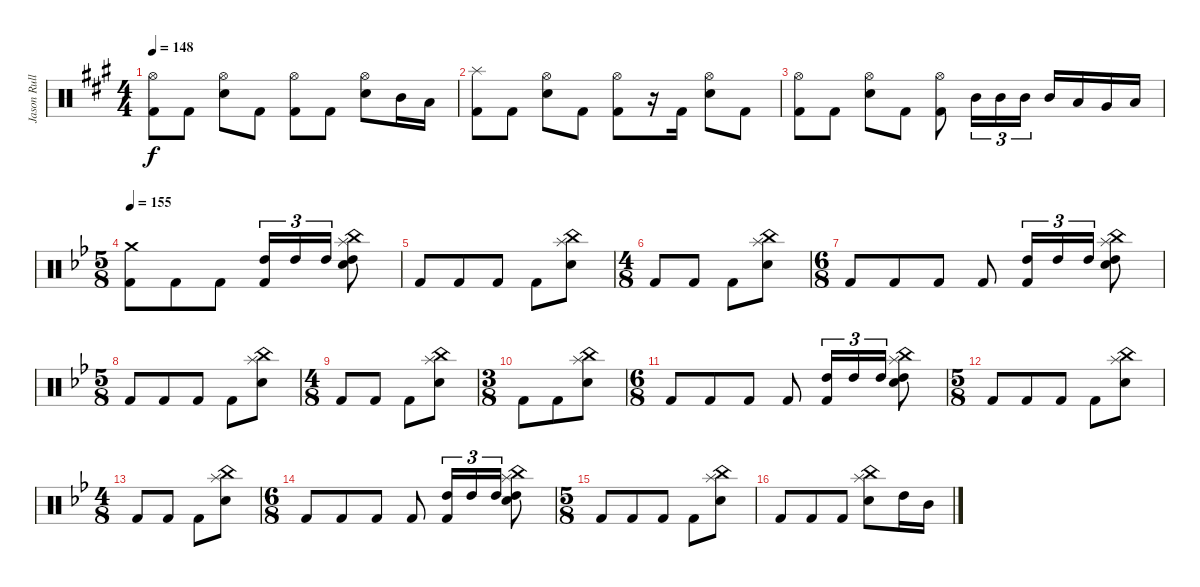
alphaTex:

\track ("Jason Rullo (drums)" "Jason Rull") {instrument percussion}
\staff {score}
\articulation defaults
\ts (4 4)
\tempo 148
\clef neutral
\ks f#minor
("Hi-Hat (open)" "Kick (hit) 2").8{dy f} "Kick (hit) 2".8 ("Hi-Hat (open)" "Electric Snare (hit)").8 "Kick (hit) 2".8 ("Hi-Hat (open)" "Kick (hit) 2").8 "Kick (hit) 2".8 ("Hi-Hat (open)" "Electric Snare (hit)").8 "Mid Tom (hit)".16 "Low Tom (hit)".16 |
("Splash (hit)" "Kick (hit) 2").8 "Kick (hit) 2".8 ("Hi-Hat (open)" "Electric Snare (hit)").8 "Kick (hit) 2".8 ("Hi-Hat (open)" "Kick (hit) 2").8 r.16 "Kick (hit) 2".16 ("Hi-Hat (open)" "Electric Snare (hit)").8 "Kick (hit) 2".8 |
("Hi-Hat (open)" "Kick (hit) 2").8 "Kick (hit) 2".8 ("Hi-Hat (open)" "Electric Snare (hit)").8 "Kick (hit) 2".8 ("Hi-Hat (open)" "Kick (hit) 2").8 "Mid Tom (hit)".16{tu (3 2)} "Mid Tom (hit)".16{tu (3 2)} "Mid Tom (hit)".16{tu (3 2)} "Mid Tom (hit)".16 "Low Tom (hit)".16 "Very Low Tom (hit)".16 "Low Floor Tom (hit)".16 |
\ts (5 8)
\tempo 155
\ks gminor
("Crash medium (hit)" "Kick (hit) 2").8 "Kick (hit) 2".8 "Kick (hit) 2".8 ("High Tom (hit)" "Kick (hit) 2").16{tu (3 2)} "High Tom (hit)".16{tu (3 2)} "High Tom (hit)".16{tu (3 2)} ("High Tom (hit)" "Splash (hit)" "China (hit)" "Electric Snare (hit)").8 |
"Kick (hit) 2".8 "Kick (hit) 2".8 "Kick (hit) 2".8 "Kick (hit) 2".8 ("Splash (hit)" "China (hit)" "Electric Snare (hit)").8 |
\ts (4 8)
"Kick (hit) 2".8 "Kick (hit) 2".8 "Kick (hit) 2".8 ("Splash (hit)" "China (hit)" "Electric Snare (hit)").8 |
\ts (6 8)
"Kick (hit) 2".8 "Kick (hit) 2".8 "Kick (hit) 2".8 "Kick (hit) 2".8 ("High Tom (hit)" "Kick (hit) 2").16{tu (3 2)} "High Tom (hit)".16{tu (3 2)} "High Tom (hit)".16{tu (3 2)} ("High Tom (hit)" "Splash (hit)" "China (hit)" "Electric Snare (hit)").8 |
\ts (5 8)
"Kick (hit) 2".8 "Kick (hit) 2".8 "Kick (hit) 2".8 "Kick (hit) 2".8 ("Splash (hit)" "China (hit)" "Electric Snare (hit)").8 |
\ts (4 8)
"Kick (hit) 2".8 "Kick (hit) 2".8 "Kick (hit) 2".8 ("Splash (hit)" "China (hit)" "Electric Snare (hit)").8 |
\ts (3 8)
"Kick (hit) 2".8 "Kick (hit) 2".8 ("Splash (hit)" "China (hit)" "Electric Snare (hit)").8 |
\ts (6 8)
"Kick (hit) 2".8 "Kick (hit) 2".8 "Kick (hit) 2".8 "Kick (hit) 2".8 ("High Tom (hit)" "Kick (hit) 2").16{tu (3 2)} "High Tom (hit)".16{tu (3 2)} "High Tom (hit)".16{tu (3 2)} ("High Tom (hit)" "Splash (hit)" "China (hit)" "Electric Snare (hit)").8 |
\ts (5 8)
"Kick (hit) 2".8 "Kick (hit) 2".8 "Kick (hit) 2".8 "Kick (hit) 2".8 ("Splash (hit)" "China (hit)" "Electric Snare (hit)").8 |
\ts (4 8)
"Kick (hit) 2".8 "Kick (hit) 2".8 "Kick (hit) 2".8 ("Splash (hit)" "China (hit)" "Electric Snare (hit)").8 |
\ts (6 8)
"Kick (hit) 2".8 "Kick (hit) 2".8 "Kick (hit) 2".8 "Kick (hit) 2".8 ("High Tom (hit)" "Kick (hit) 2").16{tu (3 2)} "High Tom (hit)".16{tu (3 2)} "High Tom (hit)".16{tu (3 2)} ("High Tom (hit)" "Splash (hit)" "China (hit)" "Electric Snare (hit)").8 |
\ts (5 8)
"Kick (hit) 2".8 "Kick (hit) 2".8 "Kick (hit) 2".8 "Kick (hit) 2".8 ("Splash (hit)" "China (hit)" "Electric Snare (hit)").8 |
"Kick (hit) 2".8 "Kick (hit) 2".8 "Kick (hit) 2".8 ("Splash (hit)" "China (hit)" "Electric Snare (hit)").8 "High Tom (hit)".16 "Mid Tom (hit)".16
